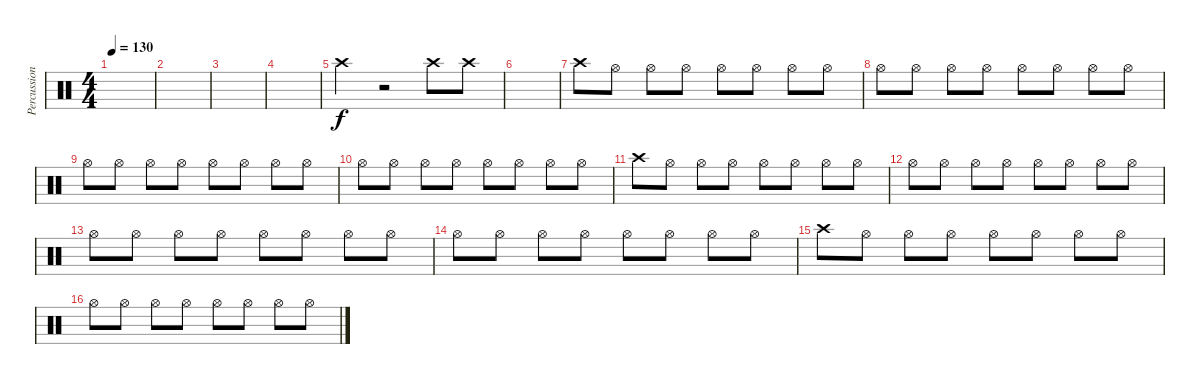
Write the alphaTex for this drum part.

\track ("Percussion" "Percussion") {instrument percussion}
\staff {score}
\articulation defaults
\ts (4 4)
\tempo 130
\clef neutral
\ks c
|
|
|
|
"Crash high (hit)".4 r.2 "Crash high (hit)".8 "Crash high (hit)".8 |
|
"Crash high (hit)".8 "Hi-Hat (open)".8 "Hi-Hat (open)".8 "Hi-Hat (open)".8 "Hi-Hat (open)".8 "Hi-Hat (open)".8 "Hi-Hat (open)".8 "Hi-Hat (open)".8 |
"Hi-Hat (open)".8 "Hi-Hat (open)".8 "Hi-Hat (open)".8 "Hi-Hat (open)".8 "Hi-Hat (open)".8 "Hi-Hat (open)".8 "Hi-Hat (open)".8 "Hi-Hat (open)".8 |
"Hi-Hat (open)".8 "Hi-Hat (open)".8 "Hi-Hat (open)".8 "Hi-Hat (open)".8 "Hi-Hat (open)".8 "Hi-Hat (open)".8 "Hi-Hat (open)".8 "Hi-Hat (open)".8 |
"Hi-Hat (open)".8 "Hi-Hat (open)".8 "Hi-Hat (open)".8 "Hi-Hat (open)".8 "Hi-Hat (open)".8 "Hi-Hat (open)".8 "Hi-Hat (open)".8 "Hi-Hat (open)".8 |
"Crash high (hit)".8 "Hi-Hat (open)".8 "Hi-Hat (open)".8 "Hi-Hat (open)".8 "Hi-Hat (open)".8 "Hi-Hat (open)".8 "Hi-Hat (open)".8 "Hi-Hat (open)".8 |
"Hi-Hat (open)".8 "Hi-Hat (open)".8 "Hi-Hat (open)".8 "Hi-Hat (open)".8 "Hi-Hat (open)".8 "Hi-Hat (open)".8 "Hi-Hat (open)".8 "Hi-Hat (open)".8 |
"Hi-Hat (open)".8 "Hi-Hat (open)".8 "Hi-Hat (open)".8 "Hi-Hat (open)".8 "Hi-Hat (open)".8 "Hi-Hat (open)".8 "Hi-Hat (open)".8 "Hi-Hat (open)".8 |
"Hi-Hat (open)".8 "Hi-Hat (open)".8 "Hi-Hat (open)".8 "Hi-Hat (open)".8 "Hi-Hat (open)".8 "Hi-Hat (open)".8 "Hi-Hat (open)".8 "Hi-Hat (open)".8 |
"Crash high (hit)".8 "Hi-Hat (open)".8 "Hi-Hat (open)".8 "Hi-Hat (open)".8 "Hi-Hat (open)".8 "Hi-Hat (open)".8 "Hi-Hat (open)".8 "Hi-Hat (open)".8 |
"Hi-Hat (open)".8 "Hi-Hat (open)".8 "Hi-Hat (open)".8 "Hi-Hat (open)".8 "Hi-Hat (open)".8 "Hi-Hat (open)".8 "Hi-Hat (open)".8 "Hi-Hat (open)".8
